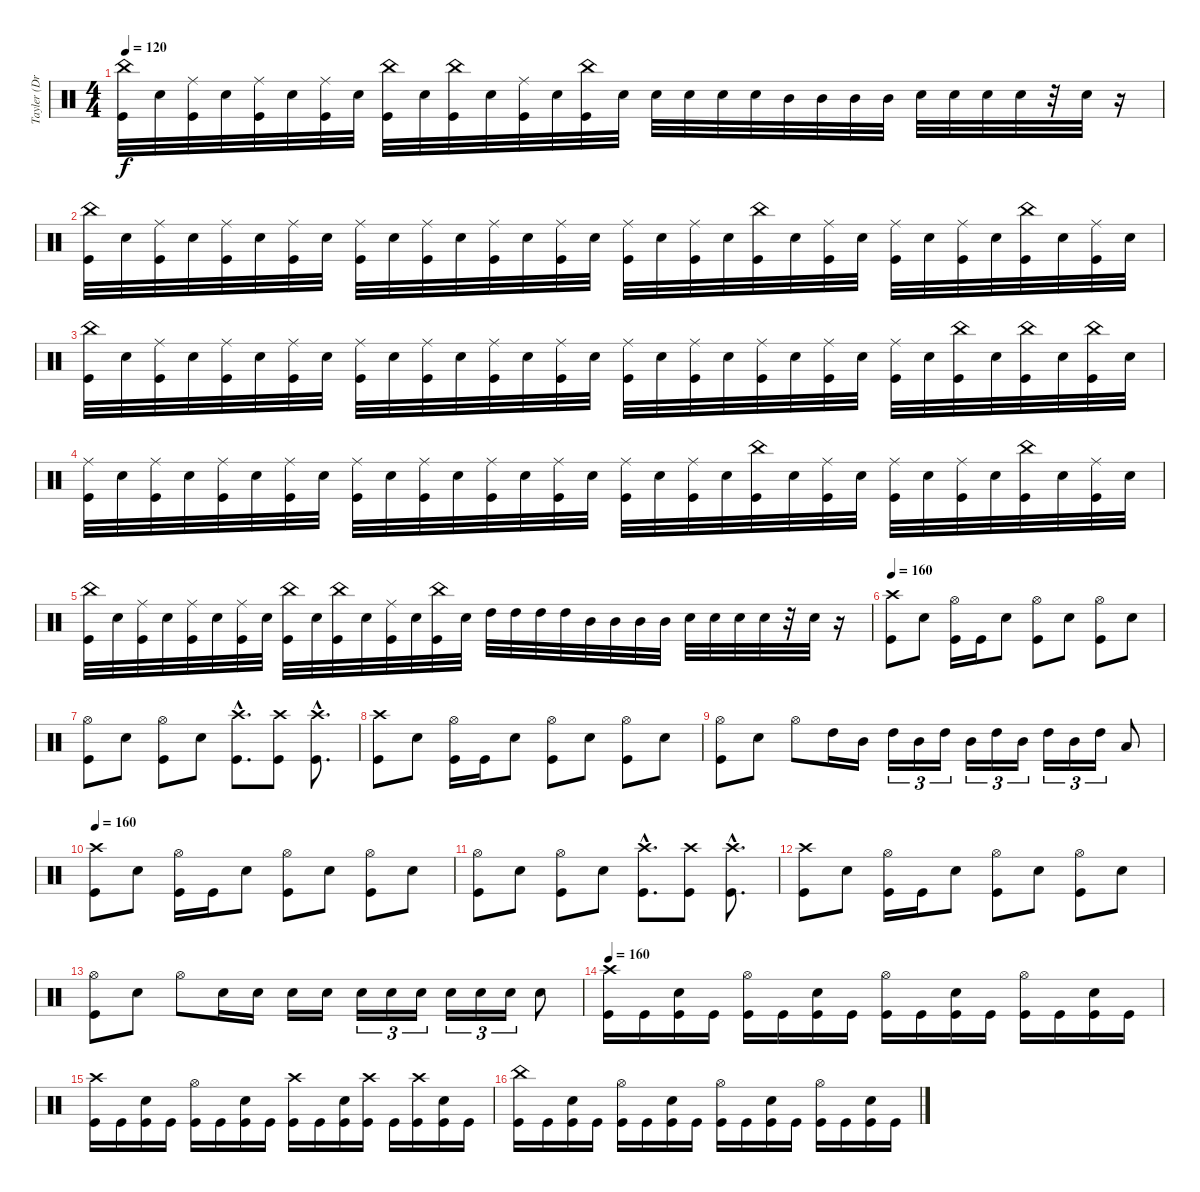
\track ("Tayler (Drums)" "Tayler (Dr") {instrument percussion}
\staff {score}
\articulation defaults
\ts (4 4)
\tempo 120
\clef neutral
\ks c
("China (hit)" "Kick (hit)").32{dy f} "Electric Snare (hit)".32 ("Ride (middle)" "Kick (hit)").32 "Electric Snare (hit)".32 ("Ride (middle)" "Kick (hit)").32 "Electric Snare (hit)".32 ("Ride (middle)" "Kick (hit)").32 "Electric Snare (hit)".32 ("China (hit)" "Kick (hit)").32 "Electric Snare (hit)".32 ("China (hit)" "Kick (hit)").32 "Electric Snare (hit)".32 ("Ride (middle)" "Kick (hit)").32 "Electric Snare (hit)".32 ("China (hit)" "Kick (hit)").32 "Electric Snare (hit)".32 "Electric Snare (hit)".32 "Electric Snare (hit)".32 "Electric Snare (hit)".32 "Electric Snare (hit)".32 "Mid Tom (hit)".32 "Mid Tom (hit)".32 "Mid Tom (hit)".32 "Mid Tom (hit)".32 "Electric Snare (hit)".32 "Electric Snare (hit)".32 "Electric Snare (hit)".32 "Electric Snare (hit)".32 r.32 "Electric Snare (hit)".32 r.16 |
("China (hit)" "Kick (hit)").32 "Electric Snare (hit)".32 ("Ride (middle)" "Kick (hit)").32 "Electric Snare (hit)".32 ("Ride (middle)" "Kick (hit)").32 "Electric Snare (hit)".32 ("Ride (middle)" "Kick (hit)").32 "Electric Snare (hit)".32 ("Ride (middle)" "Kick (hit)").32 "Electric Snare (hit)".32 ("Ride (middle)" "Kick (hit)").32 "Electric Snare (hit)".32 ("Ride (middle)" "Kick (hit)").32 "Electric Snare (hit)".32 ("Ride (middle)" "Kick (hit)").32 "Electric Snare (hit)".32 ("Ride (middle)" "Kick (hit)").32 "Electric Snare (hit)".32 ("Ride (middle)" "Kick (hit)").32 "Electric Snare (hit)".32 ("China (hit)" "Kick (hit)").32 "Electric Snare (hit)".32 ("Ride (middle)" "Kick (hit)").32 "Electric Snare (hit)".32 ("Ride (middle)" "Kick (hit)").32 "Electric Snare (hit)".32 ("Ride (middle)" "Kick (hit)").32 "Electric Snare (hit)".32 ("China (hit)" "Kick (hit)").32 "Electric Snare (hit)".32 ("Ride (middle)" "Kick (hit)").32 "Electric Snare (hit)".32 |
("China (hit)" "Kick (hit)").32 "Electric Snare (hit)".32 ("Ride (middle)" "Kick (hit)").32 "Electric Snare (hit)".32 ("Ride (middle)" "Kick (hit)").32 "Electric Snare (hit)".32 ("Ride (middle)" "Kick (hit)").32 "Electric Snare (hit)".32 ("Ride (middle)" "Kick (hit)").32 "Electric Snare (hit)".32 ("Ride (middle)" "Kick (hit)").32 "Electric Snare (hit)".32 ("Ride (middle)" "Kick (hit)").32 "Electric Snare (hit)".32 ("Ride (middle)" "Kick (hit)").32 "Electric Snare (hit)".32 ("Ride (middle)" "Kick (hit)").32 "Electric Snare (hit)".32 ("Ride (middle)" "Kick (hit)").32 "Electric Snare (hit)".32 ("Ride (middle)" "Kick (hit)").32 "Electric Snare (hit)".32 ("Ride (middle)" "Kick (hit)").32 "Electric Snare (hit)".32 ("Ride (middle)" "Kick (hit)").32 "Electric Snare (hit)".32 ("China (hit)" "Kick (hit)").32 "Electric Snare (hit)".32 ("China (hit)" "Kick (hit)").32 "Electric Snare (hit)".32 ("China (hit)" "Kick (hit)").32 "Electric Snare (hit)".32 |
("Ride (middle)" "Kick (hit)").32 "Electric Snare (hit)".32 ("Ride (middle)" "Kick (hit)").32 "Electric Snare (hit)".32 ("Ride (middle)" "Kick (hit)").32 "Electric Snare (hit)".32 ("Ride (middle)" "Kick (hit)").32 "Electric Snare (hit)".32 ("Ride (middle)" "Kick (hit)").32 "Electric Snare (hit)".32 ("Ride (middle)" "Kick (hit)").32 "Electric Snare (hit)".32 ("Ride (middle)" "Kick (hit)").32 "Electric Snare (hit)".32 ("Ride (middle)" "Kick (hit)").32 "Electric Snare (hit)".32 ("Ride (middle)" "Kick (hit)").32 "Electric Snare (hit)".32 ("Ride (middle)" "Kick (hit)").32 "Electric Snare (hit)".32 ("China (hit)" "Kick (hit)").32 "Electric Snare (hit)".32 ("Ride (middle)" "Kick (hit)").32 "Electric Snare (hit)".32 ("Ride (middle)" "Kick (hit)").32 "Electric Snare (hit)".32 ("Ride (middle)" "Kick (hit)").32 "Electric Snare (hit)".32 ("China (hit)" "Kick (hit)").32 "Electric Snare (hit)".32 ("Ride (middle)" "Kick (hit)").32 "Electric Snare (hit)".32 |
("China (hit)" "Kick (hit)").32 "Electric Snare (hit)".32 ("Ride (middle)" "Kick (hit)").32 "Electric Snare (hit)".32 ("Ride (middle)" "Kick (hit)").32 "Electric Snare (hit)".32 ("Ride (middle)" "Kick (hit)").32 "Electric Snare (hit)".32 ("China (hit)" "Kick (hit)").32 "Electric Snare (hit)".32 ("China (hit)" "Kick (hit)").32 "Electric Snare (hit)".32 ("Ride (middle)" "Kick (hit)").32 "Electric Snare (hit)".32 ("China (hit)" "Kick (hit)").32 "Electric Snare (hit)".32 "High Tom (hit)".32 "High Tom (hit)".32 "High Tom (hit)".32 "High Tom (hit)".32 "Mid Tom (hit)".32 "Mid Tom (hit)".32 "Mid Tom (hit)".32 "Mid Tom (hit)".32 "Electric Snare (hit)".32 "Electric Snare (hit)".32 "Electric Snare (hit)".32 "Electric Snare (hit)".32 r.32 "Electric Snare (hit)".32 r.16 |
\tempo 160
("Crash high (hit)" "Kick (hit)").8 "Electric Snare (hit)".8 ("Hi-Hat (open)" "Kick (hit)").16 "Kick (hit)".16 "Electric Snare (hit)".8 ("Hi-Hat (open)" "Kick (hit)").8 "Electric Snare (hit)".8 ("Hi-Hat (open)" "Kick (hit)").8 "Electric Snare (hit)".8 |
("Hi-Hat (open)" "Kick (hit)").8 "Electric Snare (hit)".8 ("Hi-Hat (open)" "Kick (hit)").8 "Electric Snare (hit)".8 ("Crash high (hit)"{hac} "Kick (hit)"{hac}).8{d} ("Crash high (hit)" "Kick (hit)").8 ("Crash high (hit)"{hac} "Kick (hit)"{hac}).8{d} |
("Crash high (hit)" "Kick (hit)").8 "Electric Snare (hit)".8 ("Hi-Hat (open)" "Kick (hit)").16 "Kick (hit)".16 "Electric Snare (hit)".8 ("Hi-Hat (open)" "Kick (hit)").8 "Electric Snare (hit)".8 ("Hi-Hat (open)" "Kick (hit)").8 "Electric Snare (hit)".8 |
("Hi-Hat (open)" "Kick (hit)").8 "Electric Snare (hit)".8 "Hi-Hat (open)".8 "High Tom (hit)".16 "Mid Tom (hit)".16 "High Tom (hit)".16{tu (3 2)} "Mid Tom (hit)".16{tu (3 2)} "High Tom (hit)".16{tu (3 2)} "Mid Tom (hit)".16{tu (3 2)} "High Tom (hit)".16{tu (3 2)} "Mid Tom (hit)".16{tu (3 2)} "High Tom (hit)".16{tu (3 2)} "Mid Tom (hit)".16{tu (3 2)} "High Tom (hit)".16{tu (3 2)} "Low Tom (hit)".8 |
\tempo 160
("Crash high (hit)" "Kick (hit)").8 "Electric Snare (hit)".8 ("Hi-Hat (open)" "Kick (hit)").16 "Kick (hit)".16 "Electric Snare (hit)".8 ("Hi-Hat (open)" "Kick (hit)").8 "Electric Snare (hit)".8 ("Hi-Hat (open)" "Kick (hit)").8 "Electric Snare (hit)".8 |
("Hi-Hat (open)" "Kick (hit)").8 "Electric Snare (hit)".8 ("Hi-Hat (open)" "Kick (hit)").8 "Electric Snare (hit)".8 ("Crash high (hit)"{hac} "Kick (hit)"{hac}).8{d} ("Crash high (hit)" "Kick (hit)").8 ("Crash high (hit)"{hac} "Kick (hit)"{hac}).8{d} |
("Crash high (hit)" "Kick (hit)").8 "Electric Snare (hit)".8 ("Hi-Hat (open)" "Kick (hit)").16 "Kick (hit)".16 "Electric Snare (hit)".8 ("Hi-Hat (open)" "Kick (hit)").8 "Electric Snare (hit)".8 ("Hi-Hat (open)" "Kick (hit)").8 "Electric Snare (hit)".8 |
("Hi-Hat (open)" "Kick (hit)").8 "Electric Snare (hit)".8 "Hi-Hat (open)".8 "Electric Snare (hit)".16 "Electric Snare (hit)".16 "Electric Snare (hit)".16 "Electric Snare (hit)".16 "Electric Snare (hit)".16{tu (3 2)} "Electric Snare (hit)".16{tu (3 2)} "Electric Snare (hit)".16{tu (3 2)} "Electric Snare (hit)".16{tu (3 2)} "Electric Snare (hit)".16{tu (3 2)} "Electric Snare (hit)".16{tu (3 2)} "Electric Snare (hit)".8 |
\tempo 160
("Crash high (hit)" "Kick (hit)").16 "Kick (hit)".16 ("Electric Snare (hit)" "Kick (hit)").16 "Kick (hit)".16 ("Hi-Hat (open)" "Kick (hit)").16 "Kick (hit)".16 ("Electric Snare (hit)" "Kick (hit)").16 "Kick (hit)".16 ("Hi-Hat (open)" "Kick (hit)").16 "Kick (hit)".16 ("Electric Snare (hit)" "Kick (hit)").16 "Kick (hit)".16 ("Hi-Hat (open)" "Kick (hit)").16 "Kick (hit)".16 ("Electric Snare (hit)" "Kick (hit)").16 "Kick (hit)".16 |
("Crash high (hit)" "Kick (hit)").16 "Kick (hit)".16 ("Electric Snare (hit)" "Kick (hit)").16 "Kick (hit)".16 ("Hi-Hat (open)" "Kick (hit)").16 "Kick (hit)".16 ("Electric Snare (hit)" "Kick (hit)").16 "Kick (hit)".16 ("Crash high (hit)" "Kick (hit)").16 "Kick (hit)".16 ("Electric Snare (hit)" "Kick (hit)").16 ("Crash high (hit)" "Kick (hit)").16 "Kick (hit)".16 ("Crash high (hit)" "Kick (hit)").16 ("Electric Snare (hit)" "Kick (hit)").16 "Kick (hit)".16 |
("China (hit)" "Kick (hit)").16 "Kick (hit)".16 ("Electric Snare (hit)" "Kick (hit)").16 "Kick (hit)".16 ("Hi-Hat (open)" "Kick (hit)").16 "Kick (hit)".16 ("Electric Snare (hit)" "Kick (hit)").16 "Kick (hit)".16 ("Hi-Hat (open)" "Kick (hit)").16 "Kick (hit)".16 ("Electric Snare (hit)" "Kick (hit)").16 "Kick (hit)".16 ("Hi-Hat (open)" "Kick (hit)").16 "Kick (hit)".16 ("Electric Snare (hit)" "Kick (hit)").16 "Kick (hit)".16
